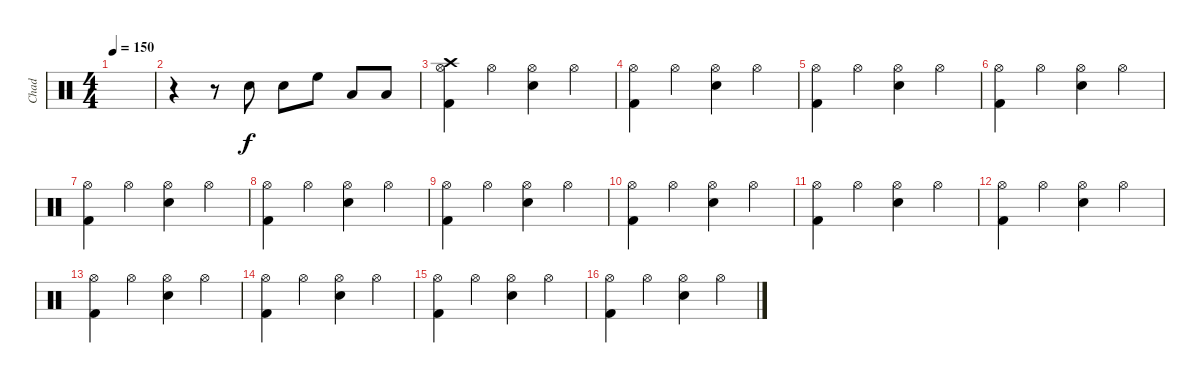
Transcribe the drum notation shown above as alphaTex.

\track ("Chad" "Chad") {instrument percussion}
\staff {score}
\articulation defaults
\ts (4 4)
\tempo 150
\clef neutral
\ks c
|
r.4 r.8 "Snare (hit) 2".8 "Snare (hit) 2".8 "High Floor Tom (hit)".8 "Low Tom (hit)".8 "Low Floor Tom (hit)".8 |
("Crash high (hit)" "Hi-Hat (open)" "Kick (hit) 2").4 "Hi-Hat (open)".4 ("Hi-Hat (open)" "Snare (hit) 2").4 "Hi-Hat (open)".4 |
("Hi-Hat (open)" "Kick (hit) 2").4 "Hi-Hat (open)".4 ("Hi-Hat (open)" "Snare (hit) 2").4 "Hi-Hat (open)".4 |
("Hi-Hat (open)" "Kick (hit) 2").4 "Hi-Hat (open)".4 ("Hi-Hat (open)" "Snare (hit) 2").4 "Hi-Hat (open)".4 |
("Hi-Hat (open)" "Kick (hit) 2").4 "Hi-Hat (open)".4 ("Hi-Hat (open)" "Snare (hit) 2").4 "Hi-Hat (open)".4 |
("Hi-Hat (open)" "Kick (hit) 2").4 "Hi-Hat (open)".4 ("Hi-Hat (open)" "Snare (hit) 2").4 "Hi-Hat (open)".4 |
("Hi-Hat (open)" "Kick (hit) 2").4 "Hi-Hat (open)".4 ("Hi-Hat (open)" "Snare (hit) 2").4 "Hi-Hat (open)".4 |
("Hi-Hat (open)" "Kick (hit) 2").4 "Hi-Hat (open)".4 ("Hi-Hat (open)" "Snare (hit) 2").4 "Hi-Hat (open)".4 |
("Hi-Hat (open)" "Kick (hit) 2").4 "Hi-Hat (open)".4 ("Hi-Hat (open)" "Snare (hit) 2").4 "Hi-Hat (open)".4 |
("Hi-Hat (open)" "Kick (hit) 2").4 "Hi-Hat (open)".4 ("Hi-Hat (open)" "Snare (hit) 2").4 "Hi-Hat (open)".4 |
("Hi-Hat (open)" "Kick (hit) 2").4 "Hi-Hat (open)".4 ("Hi-Hat (open)" "Snare (hit) 2").4 "Hi-Hat (open)".4 |
("Hi-Hat (open)" "Kick (hit) 2").4 "Hi-Hat (open)".4 ("Hi-Hat (open)" "Snare (hit) 2").4 "Hi-Hat (open)".4 |
("Hi-Hat (open)" "Kick (hit) 2").4 "Hi-Hat (open)".4 ("Hi-Hat (open)" "Snare (hit) 2").4 "Hi-Hat (open)".4 |
("Hi-Hat (open)" "Kick (hit) 2").4 "Hi-Hat (open)".4 ("Hi-Hat (open)" "Snare (hit) 2").4 "Hi-Hat (open)".4 |
("Hi-Hat (open)" "Kick (hit) 2").4 "Hi-Hat (open)".4 ("Hi-Hat (open)" "Snare (hit) 2").4 "Hi-Hat (open)".4
